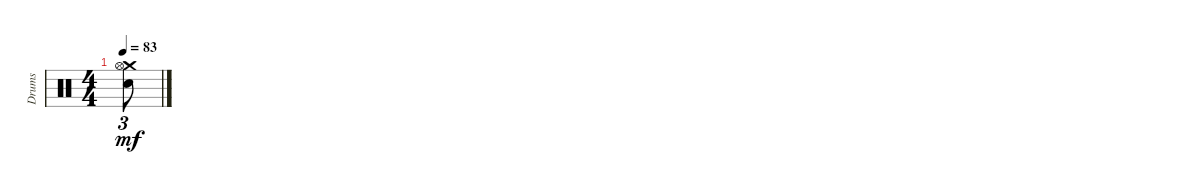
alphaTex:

\track ("Drums " "Drums ") {instrument percussion}
\staff {score}
\articulation defaults
\ts (4 4)
\tempo 83
\clef neutral
\ks c
("Crash medium (hit)" "Hi-Hat (open)" "Snare (hit) 2").8{tu (3 2) dy mf}
